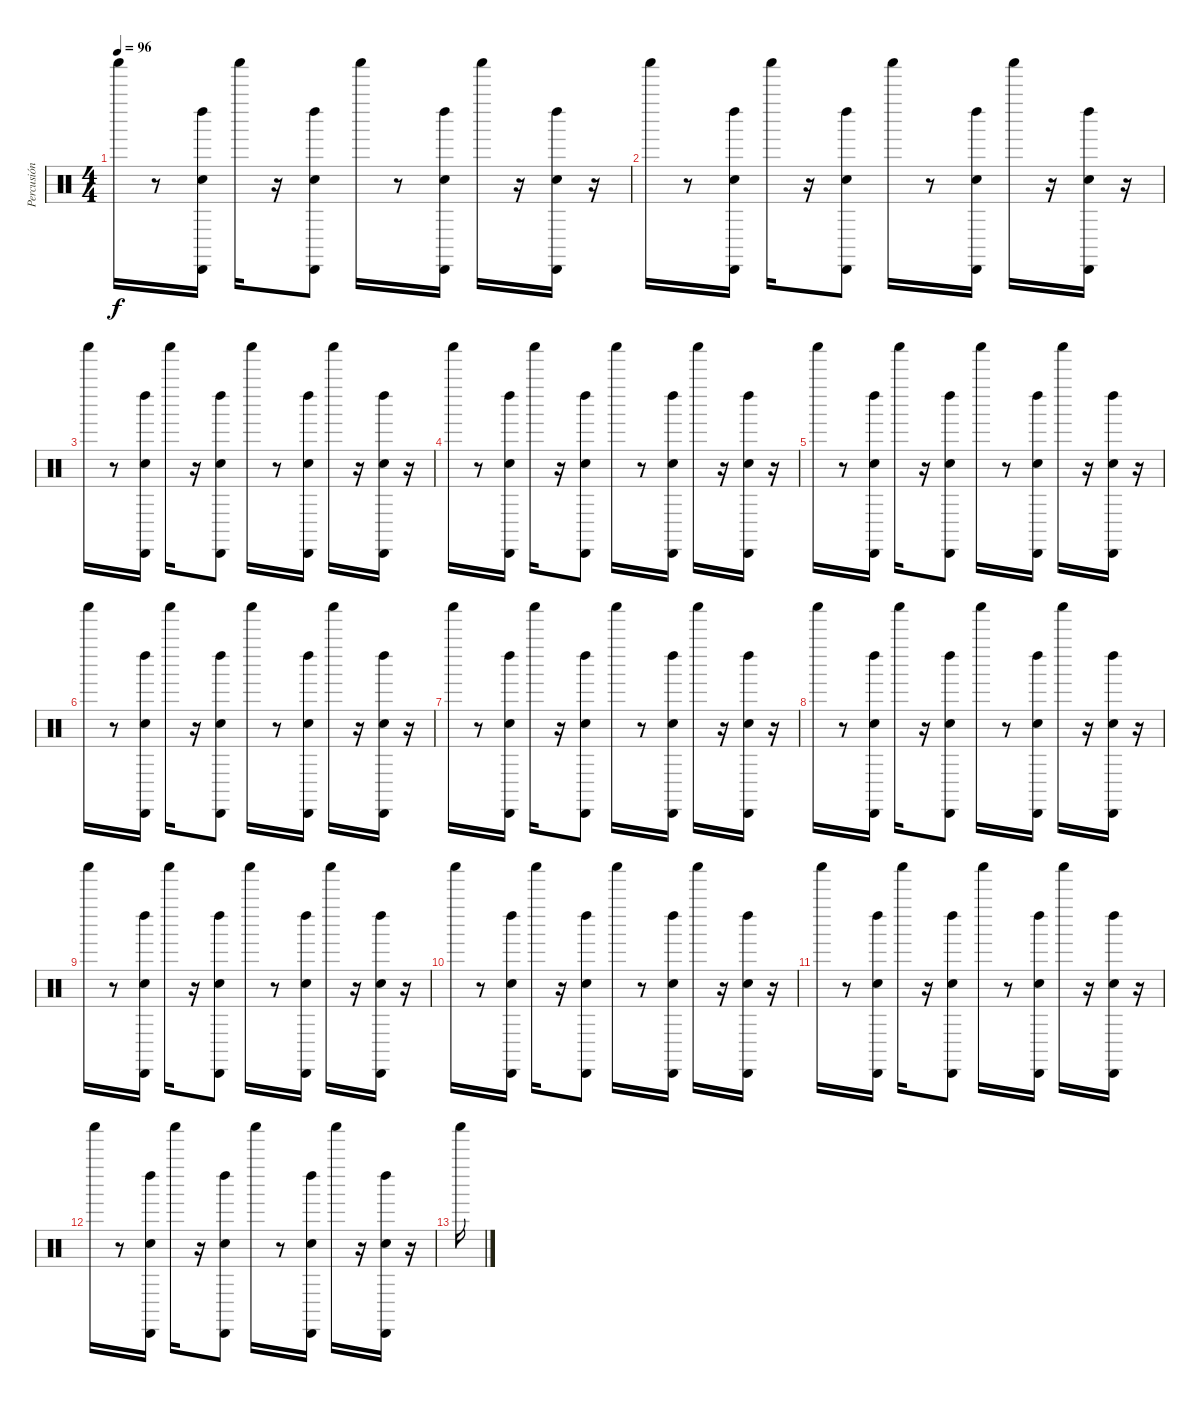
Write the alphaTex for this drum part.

\track ("Percusión" "Percusión") {instrument percussion}
\staff {score}
\articulation defaults
\ts (4 4)
\tempo 96
\clef neutral
\ks c "Shaker (hit)".16{dy f}
r.8 ("Cabasa (hit)" "Left Maraca (hit)" "Hand Clap (hit)").16 "Shaker (hit)".16 r.16 ("Left Maraca (hit)" "Cabasa (hit)" "Hand Clap (hit)").8 "Shaker (hit)".16 r.8 ("Cabasa (hit)" "Left Maraca (hit)" "Hand Clap (hit)").16 "Shaker (hit)".16 r.16 ("Left Maraca (hit)" "Cabasa (hit)" "Hand Clap (hit)").16 r.16 |
"Shaker (hit)".16 r.8 ("Cabasa (hit)" "Left Maraca (hit)" "Hand Clap (hit)").16 "Shaker (hit)".16 r.16 ("Left Maraca (hit)" "Cabasa (hit)" "Hand Clap (hit)").8 "Shaker (hit)".16 r.8 ("Cabasa (hit)" "Left Maraca (hit)" "Hand Clap (hit)").16 "Shaker (hit)".16 r.16 ("Left Maraca (hit)" "Cabasa (hit)" "Hand Clap (hit)").16 r.16 |
"Shaker (hit)".16 r.8 ("Cabasa (hit)" "Left Maraca (hit)" "Hand Clap (hit)").16 "Shaker (hit)".16 r.16 ("Left Maraca (hit)" "Cabasa (hit)" "Hand Clap (hit)").8 "Shaker (hit)".16 r.8 ("Cabasa (hit)" "Left Maraca (hit)" "Hand Clap (hit)").16 "Shaker (hit)".16 r.16 ("Left Maraca (hit)" "Cabasa (hit)" "Hand Clap (hit)").16 r.16 |
"Shaker (hit)".16 r.8 ("Cabasa (hit)" "Left Maraca (hit)" "Hand Clap (hit)").16 "Shaker (hit)".16 r.16 ("Left Maraca (hit)" "Cabasa (hit)" "Hand Clap (hit)").8 "Shaker (hit)".16 r.8 ("Cabasa (hit)" "Left Maraca (hit)" "Hand Clap (hit)").16 "Shaker (hit)".16 r.16 ("Left Maraca (hit)" "Cabasa (hit)" "Hand Clap (hit)").16 r.16 |
"Shaker (hit)".16 r.8 ("Cabasa (hit)" "Left Maraca (hit)" "Hand Clap (hit)").16 "Shaker (hit)".16 r.16 ("Left Maraca (hit)" "Cabasa (hit)" "Hand Clap (hit)").8 "Shaker (hit)".16 r.8 ("Cabasa (hit)" "Left Maraca (hit)" "Hand Clap (hit)").16 "Shaker (hit)".16 r.16 ("Left Maraca (hit)" "Cabasa (hit)" "Hand Clap (hit)").16 r.16 |
"Shaker (hit)".16 r.8 ("Cabasa (hit)" "Left Maraca (hit)" "Hand Clap (hit)").16 "Shaker (hit)".16 r.16 ("Left Maraca (hit)" "Cabasa (hit)" "Hand Clap (hit)").8 "Shaker (hit)".16 r.8 ("Cabasa (hit)" "Left Maraca (hit)" "Hand Clap (hit)").16 "Shaker (hit)".16 r.16 ("Left Maraca (hit)" "Cabasa (hit)" "Hand Clap (hit)").16 r.16 |
"Shaker (hit)".16 r.8 ("Cabasa (hit)" "Left Maraca (hit)" "Hand Clap (hit)").16 "Shaker (hit)".16 r.16 ("Left Maraca (hit)" "Cabasa (hit)" "Hand Clap (hit)").8 "Shaker (hit)".16 r.8 ("Cabasa (hit)" "Left Maraca (hit)" "Hand Clap (hit)").16 "Shaker (hit)".16 r.16 ("Left Maraca (hit)" "Cabasa (hit)" "Hand Clap (hit)").16 r.16 |
"Shaker (hit)".16 r.8 ("Cabasa (hit)" "Left Maraca (hit)" "Hand Clap (hit)").16 "Shaker (hit)".16 r.16 ("Left Maraca (hit)" "Cabasa (hit)" "Hand Clap (hit)").8 "Shaker (hit)".16 r.8 ("Cabasa (hit)" "Left Maraca (hit)" "Hand Clap (hit)").16 "Shaker (hit)".16 r.16 ("Left Maraca (hit)" "Cabasa (hit)" "Hand Clap (hit)").16 r.16 |
"Shaker (hit)".16 r.8 ("Cabasa (hit)" "Left Maraca (hit)" "Hand Clap (hit)").16 "Shaker (hit)".16 r.16 ("Left Maraca (hit)" "Cabasa (hit)" "Hand Clap (hit)").8 "Shaker (hit)".16 r.8 ("Cabasa (hit)" "Left Maraca (hit)" "Hand Clap (hit)").16 "Shaker (hit)".16 r.16 ("Left Maraca (hit)" "Cabasa (hit)" "Hand Clap (hit)").16 r.16 |
"Shaker (hit)".16 r.8 ("Cabasa (hit)" "Left Maraca (hit)" "Hand Clap (hit)").16 "Shaker (hit)".16 r.16 ("Left Maraca (hit)" "Cabasa (hit)" "Hand Clap (hit)").8 "Shaker (hit)".16 r.8 ("Cabasa (hit)" "Left Maraca (hit)" "Hand Clap (hit)").16 "Shaker (hit)".16 r.16 ("Left Maraca (hit)" "Cabasa (hit)" "Hand Clap (hit)").16 r.16 |
"Shaker (hit)".16 r.8 ("Cabasa (hit)" "Left Maraca (hit)" "Hand Clap (hit)").16 "Shaker (hit)".16 r.16 ("Left Maraca (hit)" "Cabasa (hit)" "Hand Clap (hit)").8 "Shaker (hit)".16 r.8 ("Cabasa (hit)" "Left Maraca (hit)" "Hand Clap (hit)").16 "Shaker (hit)".16 r.16 ("Left Maraca (hit)" "Cabasa (hit)" "Hand Clap (hit)").16 r.16 |
"Shaker (hit)".16 r.8 ("Cabasa (hit)" "Left Maraca (hit)" "Hand Clap (hit)").16 "Shaker (hit)".16 r.16 ("Left Maraca (hit)" "Cabasa (hit)" "Hand Clap (hit)").8 "Shaker (hit)".16 r.8 ("Cabasa (hit)" "Left Maraca (hit)" "Hand Clap (hit)").16 "Shaker (hit)".16 r.16 ("Left Maraca (hit)" "Cabasa (hit)" "Hand Clap (hit)").16 r.16 |
"Shaker (hit)".16
